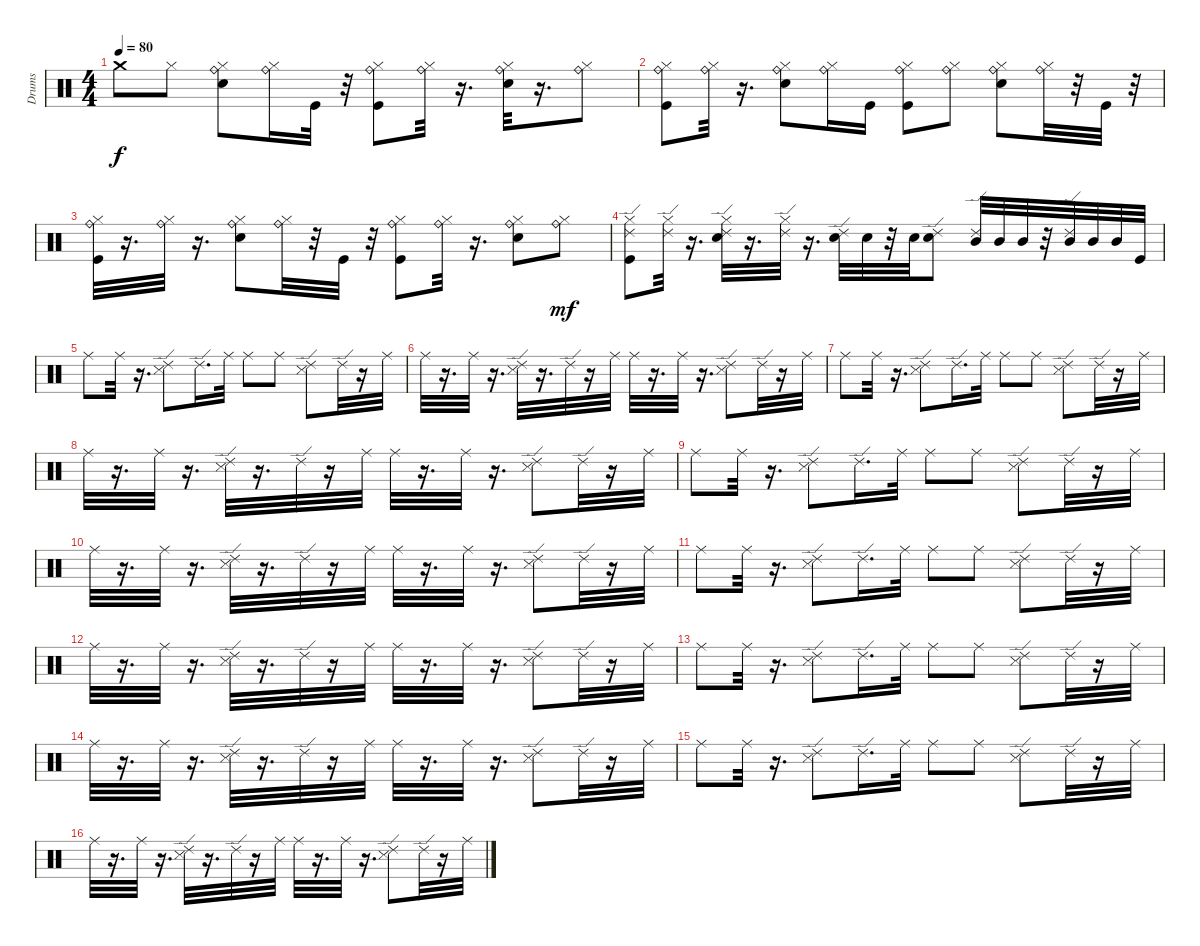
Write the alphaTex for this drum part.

\track ("Drums   " "Drums   ") {instrument percussion}
\staff {score}
\articulation defaults
\ts (4 4)
\tempo 80
\clef neutral
\ks c "Crash medium (hit)".8{dy f} "Hi-Hat (closed)".8
("Snare (hit) 2" "Hi-Hat (closed)" "Ride (bell)").8 ("Hi-Hat (closed)" "Ride (bell)").16 "Kick (hit)".32 r.32 ("Kick (hit)" "Hi-Hat (closed)" "Ride (bell)").8 ("Hi-Hat (closed)" "Ride (bell)").32 r.16{d} ("Snare (hit) 2" "Hi-Hat (closed)" "Ride (bell)").32 r.16{d} ("Hi-Hat (closed)" "Ride (bell)").8 |
("Kick (hit)" "Hi-Hat (closed)" "Ride (bell)").8 ("Hi-Hat (closed)" "Ride (bell)").32 r.16{d} ("Snare (hit) 2" "Hi-Hat (closed)" "Ride (bell)").8 ("Hi-Hat (closed)" "Ride (bell)").16 "Kick (hit)".16 ("Kick (hit)" "Hi-Hat (closed)" "Ride (bell)").8 ("Hi-Hat (closed)" "Ride (bell)").8 ("Snare (hit) 2" "Hi-Hat (closed)" "Ride (bell)").8 ("Hi-Hat (closed)" "Ride (bell)").32 r.32 "Kick (hit)".32 r.32 |
("Kick (hit)" "Hi-Hat (closed)" "Ride (bell)").32 r.16{d} ("Hi-Hat (closed)" "Ride (bell)").32 r.16{d} ("Snare (hit) 2" "Hi-Hat (closed)" "Ride (bell)").8 ("Hi-Hat (closed)" "Ride (bell)").32 r.32 "Kick (hit)".32 r.32 ("Kick (hit)" "Hi-Hat (closed)" "Ride (bell)").8 ("Hi-Hat (closed)" "Ride (bell)").32 r.16{d} ("Snare (hit) 2" "Hi-Hat (closed)" "Ride (bell)").8 ("Hi-Hat (closed)" "Ride (bell)").8{dy mf} |
("Kick (hit)" "Ride (edge) 2" "Hi-Hat (closed)").8 ("Hi-Hat (closed)" "Ride (edge) 2").32 r.16{d} ("Ride (edge) 2" "Hi-Hat (closed)" "Snare (hit) 2").32 r.16{d} ("Ride (edge) 2" "Hi-Hat (closed)").32 r.16{d} ("Snare (hit) 2" "Ride (edge) 2").32 "Snare (hit) 2".32 r.32 "Snare (hit) 2".32 ("Snare (hit) 2" "Ride (edge) 2").8 ("Mid Tom (hit)" "Ride (edge) 2").32 "Mid Tom (hit)".32 "Mid Tom (hit)".32 r.32 ("Mid Tom (hit)" "Ride (edge) 2").32 "Mid Tom (hit)".32 "Mid Tom (hit)".32 "Kick (hit)".32 |
"Ride (middle)".8 "Ride (middle)".32{volume 12} r.16{d} ("Snare (side stick) 3" "Ride (edge) 2").8 "Ride (edge) 2".16{d} "Ride (middle)".32{volume 12} "Ride (middle)".8 "Ride (middle)".8 ("Snare (side stick) 3" "Ride (edge) 2").8{volume 12} "Ride (edge) 2".32 r.16 "Ride (middle)".32 |
"Ride (middle)".32{volume 12} r.16{d} "Ride (middle)".32 r.16{d} ("Snare (side stick) 3" "Ride (edge) 2").32 r.16{d} "Ride (edge) 2".32 r.16 "Ride (middle)".32 "Ride (middle)".32 r.16{d} "Ride (middle)".32 r.16{d} ("Snare (side stick) 3" "Ride (edge) 2").8 "Ride (edge) 2".32 r.16 "Ride (middle)".32 |
"Ride (middle)".8 "Ride (middle)".32 r.16{d} ("Snare (side stick) 3" "Ride (edge) 2").8 "Ride (edge) 2".16{d} "Ride (middle)".32 "Ride (middle)".8 "Ride (middle)".8 ("Snare (side stick) 3" "Ride (edge) 2").8 "Ride (edge) 2".32 r.16 "Ride (middle)".32 |
"Ride (middle)".32 r.16{d} "Ride (middle)".32 r.16{d} ("Snare (side stick) 3" "Ride (edge) 2").32 r.16{d} "Ride (edge) 2".32 r.16 "Ride (middle)".32 "Ride (middle)".32 r.16{d} "Ride (middle)".32 r.16{d} ("Snare (side stick) 3" "Ride (edge) 2").8 "Ride (edge) 2".32 r.16 "Ride (middle)".32 |
"Ride (middle)".8 "Ride (middle)".32 r.16{d} ("Snare (side stick) 3" "Ride (edge) 2").8 "Ride (edge) 2".16{d} "Ride (middle)".32 "Ride (middle)".8 "Ride (middle)".8 ("Snare (side stick) 3" "Ride (edge) 2").8 "Ride (edge) 2".32 r.16 "Ride (middle)".32 |
"Ride (middle)".32 r.16{d} "Ride (middle)".32 r.16{d} ("Snare (side stick) 3" "Ride (edge) 2").32 r.16{d} "Ride (edge) 2".32 r.16 "Ride (middle)".32 "Ride (middle)".32 r.16{d} "Ride (middle)".32 r.16{d} ("Snare (side stick) 3" "Ride (edge) 2").8 "Ride (edge) 2".32 r.16 "Ride (middle)".32 |
"Ride (middle)".8 "Ride (middle)".32 r.16{d} ("Snare (side stick) 3" "Ride (edge) 2").8 "Ride (edge) 2".16{d} "Ride (middle)".32 "Ride (middle)".8 "Ride (middle)".8 ("Snare (side stick) 3" "Ride (edge) 2").8 "Ride (edge) 2".32 r.16 "Ride (middle)".32 |
"Ride (middle)".32 r.16{d} "Ride (middle)".32 r.16{d} ("Snare (side stick) 3" "Ride (edge) 2").32 r.16{d} "Ride (edge) 2".32 r.16 "Ride (middle)".32 "Ride (middle)".32 r.16{d} "Ride (middle)".32 r.16{d} ("Snare (side stick) 3" "Ride (edge) 2").8 "Ride (edge) 2".32 r.16 "Ride (middle)".32 |
"Ride (middle)".8 "Ride (middle)".32{volume 12} r.16{d} ("Snare (side stick) 3" "Ride (edge) 2").8 "Ride (edge) 2".16{d} "Ride (middle)".32{volume 12} "Ride (middle)".8 "Ride (middle)".8 ("Snare (side stick) 3" "Ride (edge) 2").8{volume 12} "Ride (edge) 2".32 r.16 "Ride (middle)".32 |
"Ride (middle)".32{volume 12} r.16{d} "Ride (middle)".32 r.16{d} ("Snare (side stick) 3" "Ride (edge) 2").32 r.16{d} "Ride (edge) 2".32 r.16 "Ride (middle)".32 "Ride (middle)".32 r.16{d} "Ride (middle)".32 r.16{d} ("Snare (side stick) 3" "Ride (edge) 2").8 "Ride (edge) 2".32 r.16 "Ride (middle)".32 |
"Ride (middle)".8 "Ride (middle)".32 r.16{d} ("Snare (side stick) 3" "Ride (edge) 2").8 "Ride (edge) 2".16{d} "Ride (middle)".32 "Ride (middle)".8 "Ride (middle)".8 ("Snare (side stick) 3" "Ride (edge) 2").8 "Ride (edge) 2".32 r.16 "Ride (middle)".32 |
"Ride (middle)".32 r.16{d} "Ride (middle)".32 r.16{d} ("Snare (side stick) 3" "Ride (edge) 2").32 r.16{d} "Ride (edge) 2".32 r.16 "Ride (middle)".32 "Ride (middle)".32 r.16{d} "Ride (middle)".32 r.16{d} ("Snare (side stick) 3" "Ride (edge) 2").8 "Ride (edge) 2".32 r.16 "Ride (middle)".32
